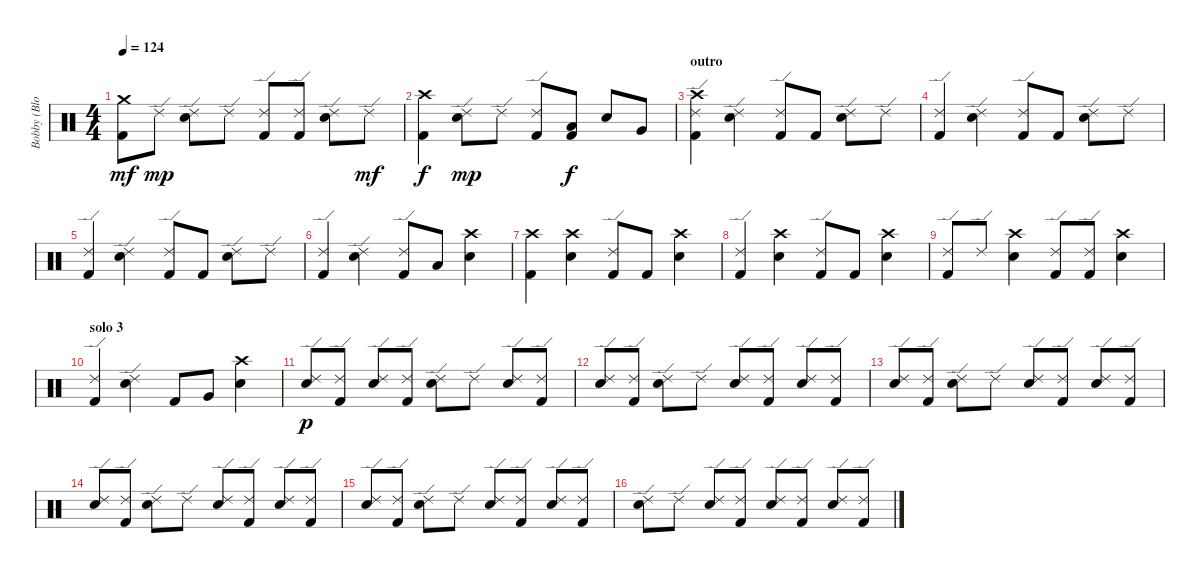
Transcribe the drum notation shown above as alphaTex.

\track ("Bobby (Blotz) Blotzer" "Bobby (Blo") {instrument percussion}
\staff {score}
\articulation defaults
\ts (4 4)
\tempo 124
\clef neutral
\ks c
("Kick (hit) 2" "Crash medium (hit)").8{dy mf} "Ride (edge) 2".8{dy mp} ("Ride (edge) 2" "Snare (hit) 2").8 "Ride (edge) 2".8 ("Kick (hit) 2" "Ride (edge) 2").8 ("Kick (hit) 2" "Ride (edge) 2").8 ("Ride (edge) 2" "Snare (hit) 2").8 "Ride (edge) 2".8{dy mf} |
("Kick (hit) 2" "Crash high (hit)").4{dy f} ("Ride (edge) 2" "Snare (hit) 2").8{dy mp} "Ride (edge) 2".8 ("Kick (hit) 2" "Ride (edge) 2").8 ("Kick (hit) 2" "Low Tom (hit)").8{dy f} "Snare (hit) 2".8 "Very Low Tom (hit)".8 |
\section ("" "outro")
("Kick (hit) 2" "Ride (edge) 2" "Crash high (hit)").4 ("Ride (edge) 2" "Snare (hit) 2").4 ("Kick (hit) 2" "Ride (edge) 2").8 "Kick (hit) 2".8 ("Ride (edge) 2" "Snare (hit) 2").8 "Ride (edge) 2".8 |
("Kick (hit) 2" "Ride (edge) 2").4 ("Ride (edge) 2" "Snare (hit) 2").4 ("Kick (hit) 2" "Ride (edge) 2").8 "Kick (hit) 2".8 ("Ride (edge) 2" "Snare (hit) 2").8 "Ride (edge) 2".8 |
("Kick (hit) 2" "Ride (edge) 2").4 ("Ride (edge) 2" "Snare (hit) 2").4 ("Kick (hit) 2" "Ride (edge) 2").8 "Kick (hit) 2".8 ("Ride (edge) 2" "Snare (hit) 2").8 "Ride (edge) 2".8 |
("Kick (hit) 2" "Ride (edge) 2").4 ("Ride (edge) 2" "Snare (hit) 2").4 ("Kick (hit) 2" "Ride (edge) 2").8 "Low Tom (hit)".8 ("Crash high (hit)" "Snare (hit) 2").4 |
("Kick (hit) 2" "Crash high (hit)").4 ("Crash high (hit)" "Snare (hit) 2").4 ("Kick (hit) 2" "Ride (edge) 2").8 "Kick (hit) 2".8 ("Crash high (hit)" "Snare (hit) 2").4 |
("Kick (hit) 2" "Ride (edge) 2").4 ("Crash high (hit)" "Snare (hit) 2").4 ("Kick (hit) 2" "Ride (edge) 2").8 "Kick (hit) 2".8 ("Crash high (hit)" "Snare (hit) 2").4 |
("Kick (hit) 2" "Ride (edge) 2").8 "Ride (edge) 2".8 ("Crash high (hit)" "Snare (hit) 2").4 ("Kick (hit) 2" "Ride (edge) 2").8 ("Kick (hit) 2" "Ride (edge) 2").8 ("Crash high (hit)" "Snare (hit) 2").4 |
\section ("" "solo 3")
("Kick (hit) 2" "Ride (edge) 2").4 ("Ride (edge) 2" "Snare (hit) 2").4 "Kick (hit) 2".8 "Very Low Tom (hit)".8 ("Crash high (hit)" "Snare (hit) 2").4 |
("Ride (edge) 2" "Snare (hit) 2").8{dy p} ("Kick (hit) 2" "Ride (edge) 2").8 ("Ride (edge) 2" "Snare (hit) 2").8 ("Kick (hit) 2" "Ride (edge) 2").8 ("Ride (edge) 2" "Snare (hit) 2").8 "Ride (edge) 2".8 ("Ride (edge) 2" "Snare (hit) 2").8 ("Kick (hit) 2" "Ride (edge) 2").8 |
("Ride (edge) 2" "Snare (hit) 2").8 ("Kick (hit) 2" "Ride (edge) 2").8 ("Ride (edge) 2" "Snare (hit) 2").8 "Ride (edge) 2".8 ("Ride (edge) 2" "Snare (hit) 2").8 ("Kick (hit) 2" "Ride (edge) 2").8 ("Ride (edge) 2" "Snare (hit) 2").8 ("Kick (hit) 2" "Ride (edge) 2").8 |
("Ride (edge) 2" "Snare (hit) 2").8 ("Kick (hit) 2" "Ride (edge) 2").8 ("Ride (edge) 2" "Snare (hit) 2").8 "Ride (edge) 2".8 ("Ride (edge) 2" "Snare (hit) 2").8 ("Kick (hit) 2" "Ride (edge) 2").8 ("Ride (edge) 2" "Snare (hit) 2").8 ("Kick (hit) 2" "Ride (edge) 2").8 |
("Ride (edge) 2" "Snare (hit) 2").8 ("Kick (hit) 2" "Ride (edge) 2").8 ("Ride (edge) 2" "Snare (hit) 2").8 "Ride (edge) 2".8 ("Ride (edge) 2" "Snare (hit) 2").8 ("Kick (hit) 2" "Ride (edge) 2").8 ("Ride (edge) 2" "Snare (hit) 2").8 ("Kick (hit) 2" "Ride (edge) 2").8 |
("Ride (edge) 2" "Snare (hit) 2").8 ("Kick (hit) 2" "Ride (edge) 2").8 ("Ride (edge) 2" "Snare (hit) 2").8 "Ride (edge) 2".8 ("Ride (edge) 2" "Snare (hit) 2").8 ("Kick (hit) 2" "Ride (edge) 2").8 ("Ride (edge) 2" "Snare (hit) 2").8 ("Kick (hit) 2" "Ride (edge) 2").8 |
("Ride (edge) 2" "Snare (hit) 2").8 "Ride (edge) 2".8 ("Ride (edge) 2" "Snare (hit) 2").8 ("Kick (hit) 2" "Ride (edge) 2").8 ("Ride (edge) 2" "Snare (hit) 2").8 ("Kick (hit) 2" "Ride (edge) 2").8 ("Ride (edge) 2" "Snare (hit) 2").8 ("Kick (hit) 2" "Ride (edge) 2").8
